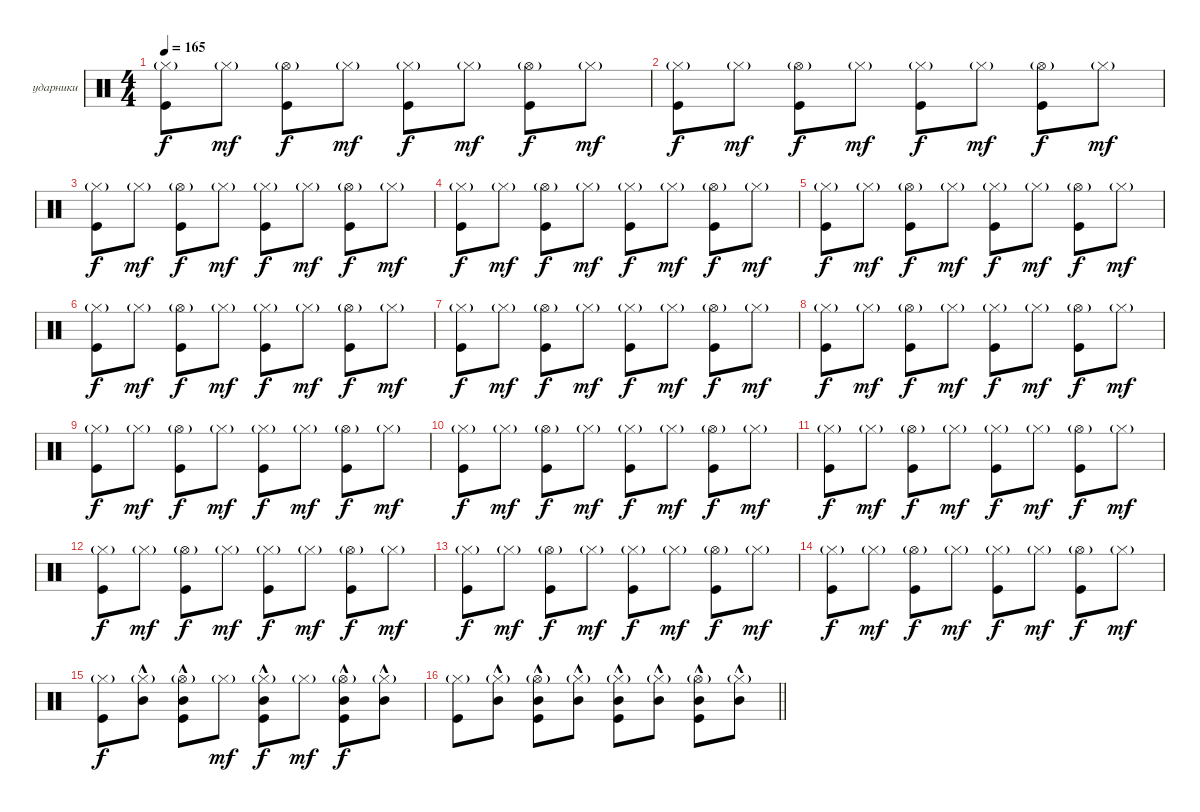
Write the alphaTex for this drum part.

\bracketExtendMode groupsimilarinstruments
\firstSystemTrackNameOrientation horizontal
\otherSystemsTrackNameOrientation horizontal
\track ("Георгий Гурьянов" "ударники") {instrument percussion}
\staff {score}
\articulation defaults
\ts (4 4)
\tempo 165
\clef neutral
\scale
0.333333
\ks c
("Hi-Hat (closed)"{g} "Kick (hit)").8{dy f} "Hi-Hat (closed)"{g}.8{dy mf} ("Hi-Hat (open)"{g} "Kick (hit)").8{dy f} "Hi-Hat (closed)"{g}.8{dy mf} ("Hi-Hat (closed)"{g} "Kick (hit)").8{dy f} "Hi-Hat (closed)"{g}.8{dy mf} ("Hi-Hat (open)"{g} "Kick (hit)").8{dy f} "Hi-Hat (closed)"{g}.8{dy mf} |
\scale
0.333333 ("Hi-Hat (closed)"{g} "Kick (hit)").8{dy f} "Hi-Hat (closed)"{g}.8{dy mf} ("Hi-Hat (open)"{g} "Kick (hit)").8{dy f} "Hi-Hat (closed)"{g}.8{dy mf} ("Hi-Hat (closed)"{g} "Kick (hit)").8{dy f} "Hi-Hat (closed)"{g}.8{dy mf} ("Hi-Hat (open)"{g} "Kick (hit)").8{dy f} "Hi-Hat (closed)"{g}.8{dy mf} |
\scale
0.333333 ("Hi-Hat (closed)"{g} "Kick (hit)").8{dy f} "Hi-Hat (closed)"{g}.8{dy mf} ("Hi-Hat (open)"{g} "Kick (hit)").8{dy f} "Hi-Hat (closed)"{g}.8{dy mf} ("Hi-Hat (closed)"{g} "Kick (hit)").8{dy f} "Hi-Hat (closed)"{g}.8{dy mf} ("Hi-Hat (open)"{g} "Kick (hit)").8{dy f} "Hi-Hat (closed)"{g}.8{dy mf} |
\scale
0.333333 ("Hi-Hat (closed)"{g} "Kick (hit)").8{dy f} "Hi-Hat (closed)"{g}.8{dy mf} ("Hi-Hat (open)"{g} "Kick (hit)").8{dy f} "Hi-Hat (closed)"{g}.8{dy mf} ("Hi-Hat (closed)"{g} "Kick (hit)").8{dy f} "Hi-Hat (closed)"{g}.8{dy mf} ("Hi-Hat (open)"{g} "Kick (hit)").8{dy f} "Hi-Hat (closed)"{g}.8{dy mf} |
\scale
0.333333 ("Hi-Hat (closed)"{g} "Kick (hit)").8{dy f} "Hi-Hat (closed)"{g}.8{dy mf} ("Hi-Hat (open)"{g} "Kick (hit)").8{dy f} "Hi-Hat (closed)"{g}.8{dy mf} ("Hi-Hat (closed)"{g} "Kick (hit)").8{dy f} "Hi-Hat (closed)"{g}.8{dy mf} ("Hi-Hat (open)"{g} "Kick (hit)").8{dy f} "Hi-Hat (closed)"{g}.8{dy mf} |
\scale
0.333333 ("Hi-Hat (closed)"{g} "Kick (hit)").8{dy f} "Hi-Hat (closed)"{g}.8{dy mf} ("Hi-Hat (open)"{g} "Kick (hit)").8{dy f} "Hi-Hat (closed)"{g}.8{dy mf} ("Hi-Hat (closed)"{g} "Kick (hit)").8{dy f} "Hi-Hat (closed)"{g}.8{dy mf} ("Hi-Hat (open)"{g} "Kick (hit)").8{dy f} "Hi-Hat (closed)"{g}.8{dy mf} |
\scale
0.333333 ("Hi-Hat (closed)"{g} "Kick (hit)").8{dy f} "Hi-Hat (closed)"{g}.8{dy mf} ("Hi-Hat (open)"{g} "Kick (hit)").8{dy f} "Hi-Hat (closed)"{g}.8{dy mf} ("Hi-Hat (closed)"{g} "Kick (hit)").8{dy f} "Hi-Hat (closed)"{g}.8{dy mf} ("Hi-Hat (open)"{g} "Kick (hit)").8{dy f} "Hi-Hat (closed)"{g}.8{dy mf} |
\scale
0.333333 ("Hi-Hat (closed)"{g} "Kick (hit)").8{dy f} "Hi-Hat (closed)"{g}.8{dy mf} ("Hi-Hat (open)"{g} "Kick (hit)").8{dy f} "Hi-Hat (closed)"{g}.8{dy mf} ("Hi-Hat (closed)"{g} "Kick (hit)").8{dy f} "Hi-Hat (closed)"{g}.8{dy mf} ("Hi-Hat (open)"{g} "Kick (hit)").8{dy f} "Hi-Hat (closed)"{g}.8{dy mf} |
\scale
0.333333 ("Hi-Hat (closed)"{g} "Kick (hit)").8{dy f} "Hi-Hat (closed)"{g}.8{dy mf} ("Hi-Hat (open)"{g} "Kick (hit)").8{dy f} "Hi-Hat (closed)"{g}.8{dy mf} ("Hi-Hat (closed)"{g} "Kick (hit)").8{dy f} "Hi-Hat (closed)"{g}.8{dy mf} ("Hi-Hat (open)"{g} "Kick (hit)").8{dy f} "Hi-Hat (closed)"{g}.8{dy mf} |
\scale
0.333333 ("Hi-Hat (closed)"{g} "Kick (hit)").8{dy f} "Hi-Hat (closed)"{g}.8{dy mf} ("Hi-Hat (open)"{g} "Kick (hit)").8{dy f} "Hi-Hat (closed)"{g}.8{dy mf} ("Hi-Hat (closed)"{g} "Kick (hit)").8{dy f} "Hi-Hat (closed)"{g}.8{dy mf} ("Hi-Hat (open)"{g} "Kick (hit)").8{dy f} "Hi-Hat (closed)"{g}.8{dy mf} |
\scale
0.333333 ("Hi-Hat (closed)"{g} "Kick (hit)").8{dy f} "Hi-Hat (closed)"{g}.8{dy mf} ("Hi-Hat (open)"{g} "Kick (hit)").8{dy f} "Hi-Hat (closed)"{g}.8{dy mf} ("Hi-Hat (closed)"{g} "Kick (hit)").8{dy f} "Hi-Hat (closed)"{g}.8{dy mf} ("Hi-Hat (open)"{g} "Kick (hit)").8{dy f} "Hi-Hat (closed)"{g}.8{dy mf} |
\scale
0.333333 ("Hi-Hat (closed)"{g} "Kick (hit)").8{dy f} "Hi-Hat (closed)"{g}.8{dy mf} ("Hi-Hat (open)"{g} "Kick (hit)").8{dy f} "Hi-Hat (closed)"{g}.8{dy mf} ("Hi-Hat (closed)"{g} "Kick (hit)").8{dy f} "Hi-Hat (closed)"{g}.8{dy mf} ("Hi-Hat (open)"{g} "Kick (hit)").8{dy f} "Hi-Hat (closed)"{g}.8{dy mf} |
\scale
0.333333 ("Hi-Hat (closed)"{g} "Kick (hit)").8{dy f} "Hi-Hat (closed)"{g}.8{dy mf} ("Hi-Hat (open)"{g} "Kick (hit)").8{dy f} "Hi-Hat (closed)"{g}.8{dy mf} ("Hi-Hat (closed)"{g} "Kick (hit)").8{dy f} "Hi-Hat (closed)"{g}.8{dy mf} ("Hi-Hat (open)"{g} "Kick (hit)").8{dy f} "Hi-Hat (closed)"{g}.8{dy mf} |
\scale
0.333333 ("Hi-Hat (closed)"{g} "Kick (hit)").8{dy f} "Hi-Hat (closed)"{g}.8{dy mf} ("Hi-Hat (open)"{g} "Kick (hit)").8{dy f} "Hi-Hat (closed)"{g}.8{dy mf} ("Hi-Hat (closed)"{g} "Kick (hit)").8{dy f} "Hi-Hat (closed)"{g}.8{dy mf} ("Hi-Hat (open)"{g} "Kick (hit)").8{dy f} "Hi-Hat (closed)"{g}.8{dy mf} |
\scale
0.333333 ("Hi-Hat (closed)"{g} "Kick (hit)").8{dy f} ("Hi-Hat (closed)"{g} "Mid Tom (hit)"{hac}).8 ("Hi-Hat (open)"{g} "Mid Tom (hit)"{hac} "Kick (hit)").8 "Hi-Hat (closed)"{g}.8{dy mf} ("Hi-Hat (closed)"{g} "Mid Tom (hit)"{hac} "Kick (hit)").8{dy f} "Hi-Hat (closed)"{g}.8{dy mf} ("Hi-Hat (open)"{g} "Mid Tom (hit)"{hac} "Kick (hit)").8{dy f} ("Hi-Hat (closed)"{g} "Mid Tom (hit)"{hac}).8 |
\scale
0.333333
\barLineRight lightlight
("Hi-Hat (closed)"{g} "Kick (hit)").8 ("Hi-Hat (closed)"{g} "Mid Tom (hit)"{hac}).8 ("Hi-Hat (open)"{g} "Mid Tom (hit)"{hac} "Kick (hit)").8 ("Hi-Hat (closed)"{g} "Mid Tom (hit)"{hac}).8 ("Hi-Hat (closed)"{g} "Mid Tom (hit)"{hac} "Kick (hit)").8 ("Hi-Hat (closed)"{g} "Mid Tom (hit)"{hac}).8 ("Hi-Hat (open)"{g} "Mid Tom (hit)"{hac} "Kick (hit)").8 ("Hi-Hat (closed)"{g} "Mid Tom (hit)"{hac}).8
